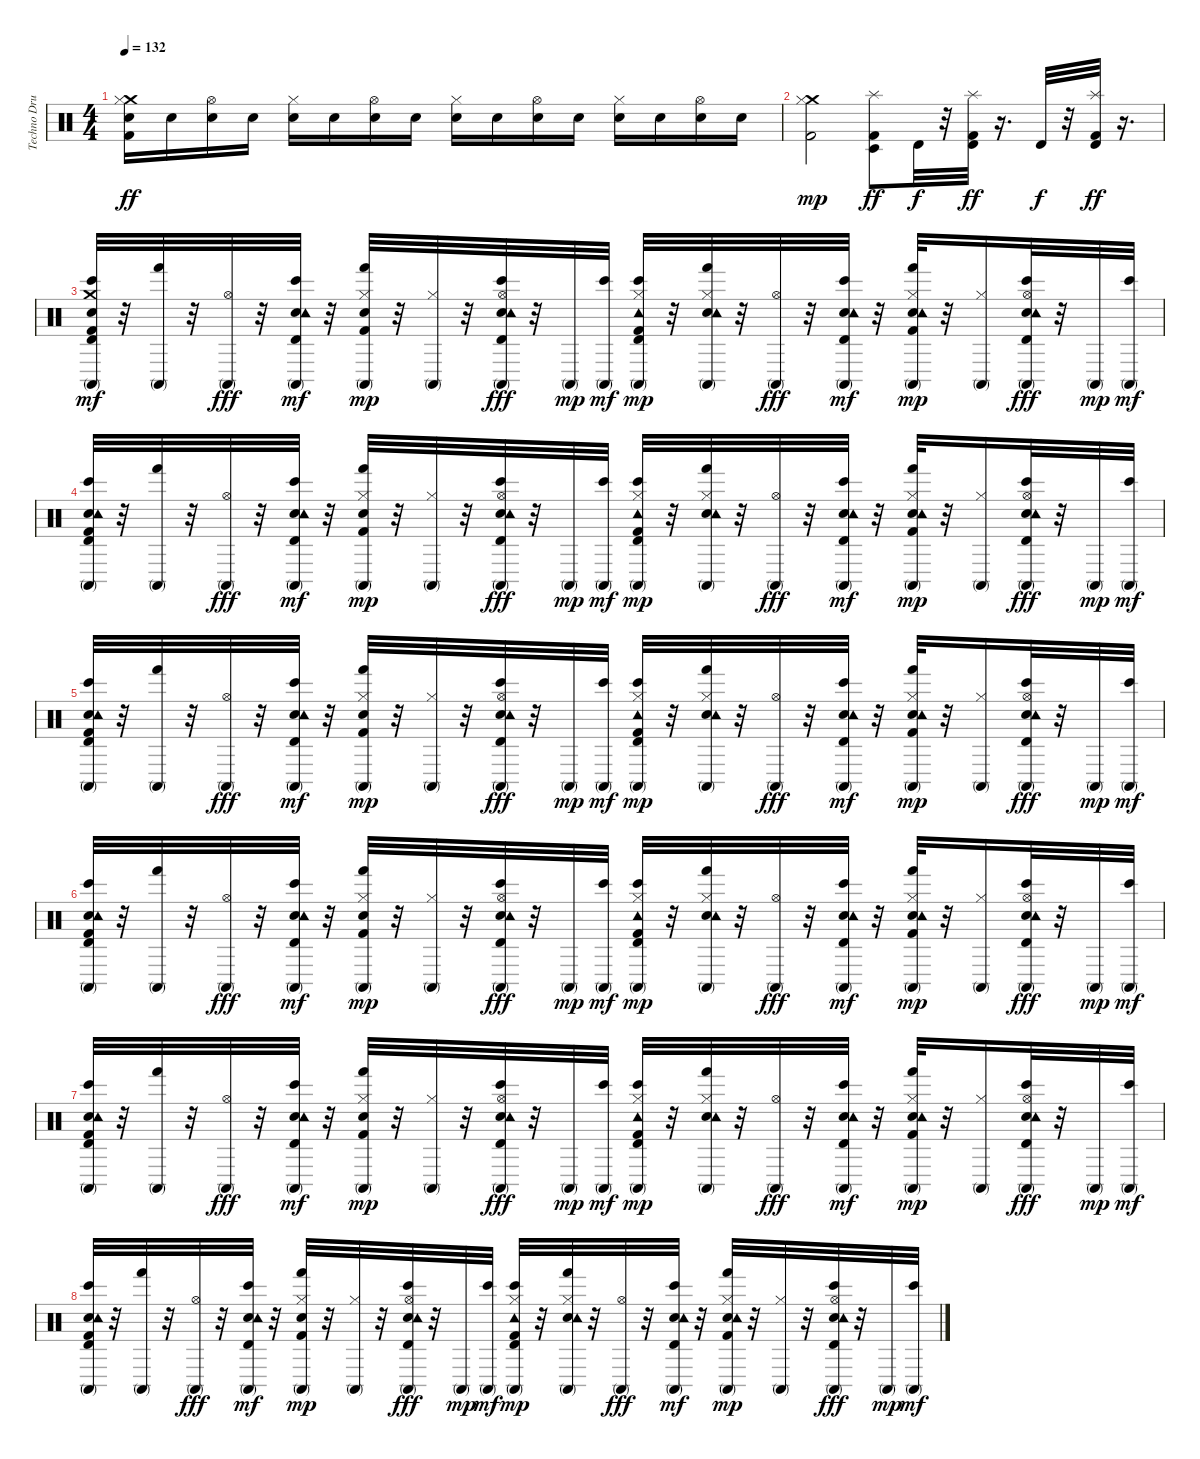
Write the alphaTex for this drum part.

\track ("Techno Drums" "Techno Dru") {instrument percussion}
\staff {score}
\articulation defaults
\ts (4 4)
\tempo 132
\clef neutral
\ks c
("Kick (hit) 2" "Crash medium (hit)"{t} "Hi-Hat (closed)" "Snare (hit) 2").16{dy ff} "Snare (hit) 2".16 ("Hi-Hat (open)" "Snare (hit) 2").16 "Snare (hit) 2".16 ("Hi-Hat (closed)" "Snare (hit) 2").16 "Snare (hit) 2".16 ("Hi-Hat (open)" "Snare (hit) 2").16 "Snare (hit) 2".16 ("Hi-Hat (closed)" "Snare (hit) 2").16 "Snare (hit) 2".16 ("Hi-Hat (open)" "Snare (hit) 2").16 "Snare (hit) 2".16 ("Hi-Hat (closed)" "Snare (hit) 2").16 "Snare (hit) 2".16 ("Hi-Hat (open)" "Snare (hit) 2").16 "Snare (hit) 2".16 |
("Kick (hit) 2" "Crash medium (hit)" "Hi-Hat (closed)").2{dy mp} ("Timbale low (hit)" "Splash (hit)" "Kick (hit) 2").8{dy ff} "Timbale high (hit)".32{dy f} r.32 ("Timbale high (hit)" "Splash (hit)" "Kick (hit) 2").32{dy ff} r.16{d} "Timbale high (hit)".32{dy f} r.32 ("Timbale high (hit)" "Splash (hit)" "Kick (hit) 2").32{dy ff} r.16{d} |
("Kick (hit) 2" "Hand Clap (hit)" "Crash medium (hit)" "Conga high (mute)" "Bongo High (hit)" "Timbale high (hit)").32{dy mf} r.32 ("Conga high (mute)" "Hand (hit)").32 r.32 ("Conga high (mute)" "Hi-Hat (open)").32{dy fff} r.32 ("Hand Clap (hit)" "Tambourine (hit)" "Conga high (mute)" "Bongo High (hit)" "Timbale high (hit)").32{dy mf} r.32 ("Kick (hit) 2" "Hand Clap (hit)" "Conga high (mute)" "Hand (hit)" "Hi-Hat (closed)").32{dy mp} r.32 ("Conga high (mute)" "Hi-Hat (closed)").32 r.32 ("Hand Clap (hit)" "Tambourine (hit)" "Conga high (mute)" "Bongo High (hit)" "Timbale high (hit)" "Hi-Hat (open)").32{dy fff} r.32 "Conga high (mute)".32{dy mp} ("Conga high (mute)" "Bongo High (hit)").32{dy mf} ("Kick (hit) 2" "Tambourine (hit)" "Conga high (mute)" "Bongo High (hit)" "Timbale high (hit)" "Hi-Hat (closed)").32{dy mp} r.32 ("Hand Clap (hit)" "Tambourine (hit)" "Conga high (mute)" "Hand (hit)" "Hi-Hat (closed)").32 r.32 ("Conga high (mute)" "Hi-Hat (open)").32{dy fff} r.32 ("Hand Clap (hit)" "Tambourine (hit)" "Conga high (mute)" "Bongo High (hit)" "Timbale high (hit)").32{dy mf} r.32 ("Kick (hit) 2" "Hand Clap (hit)" "Tambourine (hit)" "Conga high (mute)" "Hand (hit)" "Hi-Hat (closed)").32{dy mp} r.32 ("Conga high (mute)" "Hi-Hat (closed)").16 ("Hand Clap (hit)" "Tambourine (hit)" "Conga high (mute)" "Bongo High (hit)" "Timbale high (hit)" "Hi-Hat (open)").32{dy fff} r.32 "Conga high (mute)".32{dy mp} ("Conga high (mute)" "Bongo High (hit)").32{dy mf} |
("Kick (hit) 2" "Hand Clap (hit)" "Tambourine (hit)" "Conga high (mute)" "Bongo High (hit)" "Timbale high (hit)").32 r.32 ("Conga high (mute)" "Hand (hit)").32 r.32 ("Conga high (mute)" "Hi-Hat (open)").32{dy fff} r.32 ("Hand Clap (hit)" "Tambourine (hit)" "Conga high (mute)" "Bongo High (hit)" "Timbale high (hit)").32{dy mf} r.32 ("Kick (hit) 2" "Hand Clap (hit)" "Conga high (mute)" "Hand (hit)" "Hi-Hat (closed)").32{dy mp} r.32 ("Conga high (mute)" "Hi-Hat (closed)").32 r.32 ("Hand Clap (hit)" "Tambourine (hit)" "Conga high (mute)" "Bongo High (hit)" "Timbale high (hit)" "Hi-Hat (open)").32{dy fff} r.32 "Conga high (mute)".32{dy mp} ("Conga high (mute)" "Bongo High (hit)").32{dy mf} ("Kick (hit) 2" "Tambourine (hit)" "Conga high (mute)" "Bongo High (hit)" "Timbale high (hit)" "Hi-Hat (closed)").32{dy mp} r.32 ("Hand Clap (hit)" "Tambourine (hit)" "Conga high (mute)" "Hand (hit)" "Hi-Hat (closed)").32 r.32 ("Conga high (mute)" "Hi-Hat (open)").32{dy fff} r.32 ("Hand Clap (hit)" "Tambourine (hit)" "Conga high (mute)" "Bongo High (hit)" "Timbale high (hit)").32{dy mf} r.32 ("Kick (hit) 2" "Hand Clap (hit)" "Tambourine (hit)" "Conga high (mute)" "Hand (hit)" "Hi-Hat (closed)").32{dy mp} r.32 ("Conga high (mute)" "Hi-Hat (closed)").16 ("Hand Clap (hit)" "Tambourine (hit)" "Conga high (mute)" "Bongo High (hit)" "Timbale high (hit)" "Hi-Hat (open)").32{dy fff} r.32 "Conga high (mute)".32{dy mp} ("Conga high (mute)" "Bongo High (hit)").32{dy mf} |
("Kick (hit) 2" "Hand Clap (hit)" "Tambourine (hit)" "Conga high (mute)" "Bongo High (hit)" "Timbale high (hit)").32 r.32 ("Conga high (mute)" "Hand (hit)").32 r.32 ("Conga high (mute)" "Hi-Hat (open)").32{dy fff} r.32 ("Hand Clap (hit)" "Tambourine (hit)" "Conga high (mute)" "Bongo High (hit)" "Timbale high (hit)").32{dy mf} r.32 ("Kick (hit) 2" "Hand Clap (hit)" "Conga high (mute)" "Hand (hit)" "Hi-Hat (closed)").32{dy mp} r.32 ("Conga high (mute)" "Hi-Hat (closed)").32 r.32 ("Hand Clap (hit)" "Tambourine (hit)" "Conga high (mute)" "Bongo High (hit)" "Timbale high (hit)" "Hi-Hat (open)").32{dy fff} r.32 "Conga high (mute)".32{dy mp} ("Conga high (mute)" "Bongo High (hit)").32{dy mf} ("Kick (hit) 2" "Tambourine (hit)" "Conga high (mute)" "Bongo High (hit)" "Timbale high (hit)" "Hi-Hat (closed)").32{dy mp} r.32 ("Hand Clap (hit)" "Tambourine (hit)" "Conga high (mute)" "Hand (hit)" "Hi-Hat (closed)").32 r.32 ("Conga high (mute)" "Hi-Hat (open)").32{dy fff} r.32 ("Hand Clap (hit)" "Tambourine (hit)" "Conga high (mute)" "Bongo High (hit)" "Timbale high (hit)").32{dy mf} r.32 ("Kick (hit) 2" "Hand Clap (hit)" "Tambourine (hit)" "Conga high (mute)" "Hand (hit)" "Hi-Hat (closed)").32{dy mp} r.32 ("Conga high (mute)" "Hi-Hat (closed)").16 ("Hand Clap (hit)" "Tambourine (hit)" "Conga high (mute)" "Bongo High (hit)" "Timbale high (hit)" "Hi-Hat (open)").32{dy fff} r.32 "Conga high (mute)".32{dy mp} ("Conga high (mute)" "Bongo High (hit)").32{dy mf} |
("Kick (hit) 2" "Hand Clap (hit)" "Tambourine (hit)" "Conga high (mute)" "Bongo High (hit)" "Timbale high (hit)").32 r.32 ("Conga high (mute)" "Hand (hit)").32 r.32 ("Conga high (mute)" "Hi-Hat (open)").32{dy fff} r.32 ("Hand Clap (hit)" "Tambourine (hit)" "Conga high (mute)" "Bongo High (hit)" "Timbale high (hit)").32{dy mf} r.32 ("Kick (hit) 2" "Hand Clap (hit)" "Conga high (mute)" "Hand (hit)" "Hi-Hat (closed)").32{dy mp} r.32 ("Conga high (mute)" "Hi-Hat (closed)").32 r.32 ("Hand Clap (hit)" "Tambourine (hit)" "Conga high (mute)" "Bongo High (hit)" "Timbale high (hit)" "Hi-Hat (open)").32{dy fff} r.32 "Conga high (mute)".32{dy mp} ("Conga high (mute)" "Bongo High (hit)").32{dy mf} ("Kick (hit) 2" "Tambourine (hit)" "Conga high (mute)" "Bongo High (hit)" "Timbale high (hit)" "Hi-Hat (closed)").32{dy mp} r.32 ("Hand Clap (hit)" "Tambourine (hit)" "Conga high (mute)" "Hand (hit)" "Hi-Hat (closed)").32 r.32 ("Conga high (mute)" "Hi-Hat (open)").32{dy fff} r.32 ("Hand Clap (hit)" "Tambourine (hit)" "Conga high (mute)" "Bongo High (hit)" "Timbale high (hit)").32{dy mf} r.32 ("Kick (hit) 2" "Hand Clap (hit)" "Tambourine (hit)" "Conga high (mute)" "Hand (hit)" "Hi-Hat (closed)").32{dy mp} r.32 ("Conga high (mute)" "Hi-Hat (closed)").16 ("Hand Clap (hit)" "Tambourine (hit)" "Conga high (mute)" "Bongo High (hit)" "Timbale high (hit)" "Hi-Hat (open)").32{dy fff} r.32 "Conga high (mute)".32{dy mp} ("Conga high (mute)" "Bongo High (hit)").32{dy mf} |
("Kick (hit) 2" "Hand Clap (hit)" "Tambourine (hit)" "Conga high (mute)" "Bongo High (hit)" "Timbale high (hit)").32 r.32 ("Conga high (mute)" "Hand (hit)").32 r.32 ("Conga high (mute)" "Hi-Hat (open)").32{dy fff} r.32 ("Hand Clap (hit)" "Tambourine (hit)" "Conga high (mute)" "Bongo High (hit)" "Timbale high (hit)").32{dy mf} r.32 ("Kick (hit) 2" "Hand Clap (hit)" "Conga high (mute)" "Hand (hit)" "Hi-Hat (closed)").32{dy mp} r.32 ("Conga high (mute)" "Hi-Hat (closed)").32 r.32 ("Hand Clap (hit)" "Tambourine (hit)" "Conga high (mute)" "Bongo High (hit)" "Timbale high (hit)" "Hi-Hat (open)").32{dy fff} r.32 "Conga high (mute)".32{dy mp} ("Conga high (mute)" "Bongo High (hit)").32{dy mf} ("Kick (hit) 2" "Tambourine (hit)" "Conga high (mute)" "Bongo High (hit)" "Timbale high (hit)" "Hi-Hat (closed)").32{dy mp} r.32 ("Hand Clap (hit)" "Tambourine (hit)" "Conga high (mute)" "Hand (hit)" "Hi-Hat (closed)").32 r.32 ("Conga high (mute)" "Hi-Hat (open)").32{dy fff} r.32 ("Hand Clap (hit)" "Tambourine (hit)" "Conga high (mute)" "Bongo High (hit)" "Timbale high (hit)").32{dy mf} r.32 ("Kick (hit) 2" "Hand Clap (hit)" "Tambourine (hit)" "Conga high (mute)" "Hand (hit)" "Hi-Hat (closed)").32{dy mp} r.32 ("Conga high (mute)" "Hi-Hat (closed)").16 ("Hand Clap (hit)" "Tambourine (hit)" "Conga high (mute)" "Bongo High (hit)" "Timbale high (hit)" "Hi-Hat (open)").32{dy fff} r.32 "Conga high (mute)".32{dy mp} ("Conga high (mute)" "Bongo High (hit)").32{dy mf} |
("Kick (hit) 2" "Hand Clap (hit)" "Tambourine (hit)" "Conga high (mute)" "Bongo High (hit)" "Timbale high (hit)").32 r.32 ("Conga high (mute)" "Hand (hit)").32 r.32 ("Conga high (mute)" "Hi-Hat (open)").32{dy fff} r.32 ("Hand Clap (hit)" "Tambourine (hit)" "Conga high (mute)" "Bongo High (hit)" "Timbale high (hit)").32{dy mf} r.32 ("Kick (hit) 2" "Hand Clap (hit)" "Conga high (mute)" "Hand (hit)" "Hi-Hat (closed)").32{dy mp} r.32 ("Conga high (mute)" "Hi-Hat (closed)").32 r.32 ("Hand Clap (hit)" "Tambourine (hit)" "Conga high (mute)" "Bongo High (hit)" "Timbale high (hit)" "Hi-Hat (open)").32{dy fff} r.32 "Conga high (mute)".32{dy mp} ("Conga high (mute)" "Bongo High (hit)").32{dy mf} ("Kick (hit) 2" "Tambourine (hit)" "Conga high (mute)" "Bongo High (hit)" "Timbale high (hit)" "Hi-Hat (closed)").32{dy mp} r.32 ("Hand Clap (hit)" "Tambourine (hit)" "Conga high (mute)" "Hand (hit)" "Hi-Hat (closed)").32 r.32 ("Conga high (mute)" "Hi-Hat (open)").32{dy fff} r.32 ("Hand Clap (hit)" "Tambourine (hit)" "Conga high (mute)" "Bongo High (hit)" "Timbale high (hit)").32{dy mf} r.32 ("Kick (hit) 2" "Hand Clap (hit)" "Tambourine (hit)" "Conga high (mute)" "Hand (hit)" "Hi-Hat (closed)").32{dy mp} r.32 ("Conga high (mute)" "Hi-Hat (closed)").32 r.32 ("Hand Clap (hit)" "Tambourine (hit)" "Conga high (mute)" "Bongo High (hit)" "Timbale high (hit)" "Hi-Hat (open)").32{dy fff} r.32 "Conga high (mute)".32{dy mp} ("Conga high (mute)" "Bongo High (hit)").32{dy mf}
